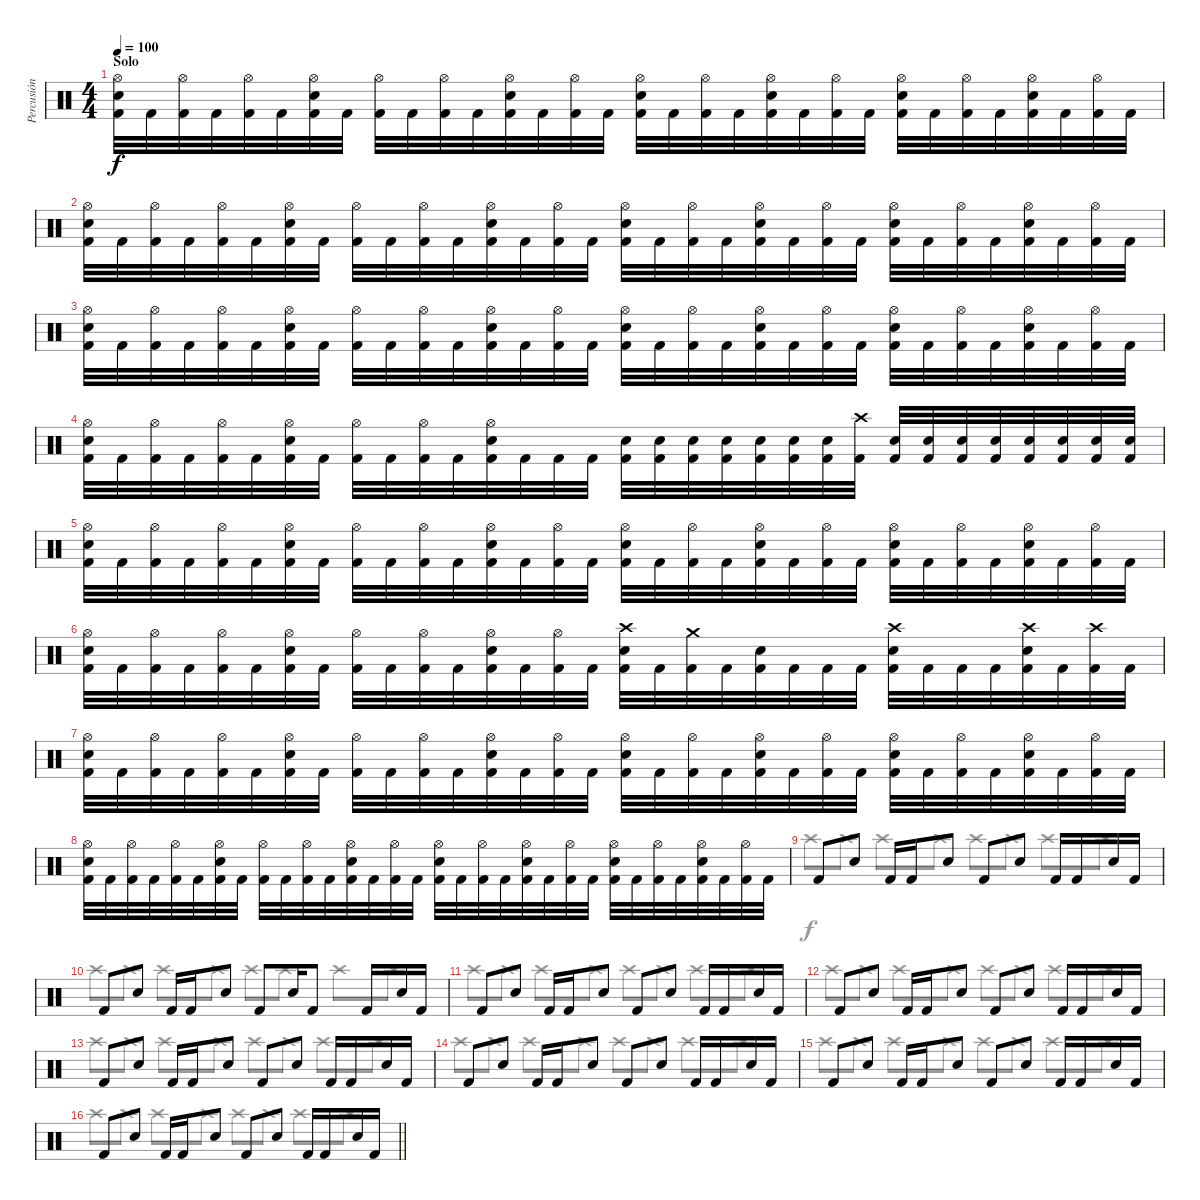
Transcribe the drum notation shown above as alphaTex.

\track ("Percusión" "Percusión") {instrument percussion}
\staff {score}
\articulation defaults
\voice
\ts (4 4)
\section ("" "Solo")
\tempo 100
\clef neutral
\ks c
("Kick (hit) 2" "Snare (hit) 2" "Hi-Hat (open)").32{dy f} "Kick (hit) 2".32 ("Kick (hit) 2" "Hi-Hat (open)").32 "Kick (hit) 2".32 ("Kick (hit) 2" "Hi-Hat (open)").32 "Kick (hit) 2".32 ("Kick (hit) 2" "Snare (hit) 2" "Hi-Hat (open)").32 "Kick (hit) 2".32 ("Kick (hit) 2" "Hi-Hat (open)").32 "Kick (hit) 2".32 ("Kick (hit) 2" "Hi-Hat (open)").32 "Kick (hit) 2".32 ("Kick (hit) 2" "Snare (hit) 2" "Hi-Hat (open)").32 "Kick (hit) 2".32 ("Kick (hit) 2" "Hi-Hat (open)").32 "Kick (hit) 2".32 ("Kick (hit) 2" "Snare (hit) 2" "Hi-Hat (open)").32 "Kick (hit) 2".32 ("Kick (hit) 2" "Hi-Hat (open)").32 "Kick (hit) 2".32 ("Kick (hit) 2" "Snare (hit) 2" "Hi-Hat (open)").32 "Kick (hit) 2".32 ("Kick (hit) 2" "Hi-Hat (open)").32 "Kick (hit) 2".32 ("Kick (hit) 2" "Snare (hit) 2" "Hi-Hat (open)").32 "Kick (hit) 2".32 ("Kick (hit) 2" "Hi-Hat (open)").32 "Kick (hit) 2".32 ("Kick (hit) 2" "Snare (hit) 2" "Hi-Hat (open)").32 "Kick (hit) 2".32 ("Kick (hit) 2" "Hi-Hat (open)").32 "Kick (hit) 2".32 |
("Kick (hit) 2" "Snare (hit) 2" "Hi-Hat (open)").32 "Kick (hit) 2".32 ("Kick (hit) 2" "Hi-Hat (open)").32 "Kick (hit) 2".32 ("Kick (hit) 2" "Hi-Hat (open)").32 "Kick (hit) 2".32 ("Kick (hit) 2" "Snare (hit) 2" "Hi-Hat (open)").32 "Kick (hit) 2".32 ("Kick (hit) 2" "Hi-Hat (open)").32 "Kick (hit) 2".32 ("Kick (hit) 2" "Hi-Hat (open)").32 "Kick (hit) 2".32 ("Kick (hit) 2" "Snare (hit) 2" "Hi-Hat (open)").32 "Kick (hit) 2".32 ("Kick (hit) 2" "Hi-Hat (open)").32 "Kick (hit) 2".32 ("Kick (hit) 2" "Snare (hit) 2" "Hi-Hat (open)").32 "Kick (hit) 2".32 ("Kick (hit) 2" "Hi-Hat (open)").32 "Kick (hit) 2".32 ("Kick (hit) 2" "Snare (hit) 2" "Hi-Hat (open)").32 "Kick (hit) 2".32 ("Kick (hit) 2" "Hi-Hat (open)").32 "Kick (hit) 2".32 ("Kick (hit) 2" "Snare (hit) 2" "Hi-Hat (open)").32 "Kick (hit) 2".32 ("Kick (hit) 2" "Hi-Hat (open)").32 "Kick (hit) 2".32 ("Kick (hit) 2" "Snare (hit) 2" "Hi-Hat (open)").32 "Kick (hit) 2".32 ("Kick (hit) 2" "Hi-Hat (open)").32 "Kick (hit) 2".32 |
("Kick (hit) 2" "Snare (hit) 2" "Hi-Hat (open)").32 "Kick (hit) 2".32 ("Kick (hit) 2" "Hi-Hat (open)").32 "Kick (hit) 2".32 ("Kick (hit) 2" "Hi-Hat (open)").32 "Kick (hit) 2".32 ("Kick (hit) 2" "Snare (hit) 2" "Hi-Hat (open)").32 "Kick (hit) 2".32 ("Kick (hit) 2" "Hi-Hat (open)").32 "Kick (hit) 2".32 ("Kick (hit) 2" "Hi-Hat (open)").32 "Kick (hit) 2".32 ("Kick (hit) 2" "Snare (hit) 2" "Hi-Hat (open)").32 "Kick (hit) 2".32 ("Kick (hit) 2" "Hi-Hat (open)").32 "Kick (hit) 2".32 ("Kick (hit) 2" "Snare (hit) 2" "Hi-Hat (open)").32 "Kick (hit) 2".32 ("Kick (hit) 2" "Hi-Hat (open)").32 "Kick (hit) 2".32 ("Kick (hit) 2" "Snare (hit) 2" "Hi-Hat (open)").32 "Kick (hit) 2".32 ("Kick (hit) 2" "Hi-Hat (open)").32 "Kick (hit) 2".32 ("Kick (hit) 2" "Snare (hit) 2" "Hi-Hat (open)").32 "Kick (hit) 2".32 ("Kick (hit) 2" "Hi-Hat (open)").32 "Kick (hit) 2".32 ("Kick (hit) 2" "Snare (hit) 2" "Hi-Hat (open)").32 "Kick (hit) 2".32 ("Kick (hit) 2" "Hi-Hat (open)").32 "Kick (hit) 2".32 |
("Kick (hit) 2" "Snare (hit) 2" "Hi-Hat (open)").32 "Kick (hit) 2".32 ("Kick (hit) 2" "Hi-Hat (open)").32 "Kick (hit) 2".32 ("Kick (hit) 2" "Hi-Hat (open)").32 "Kick (hit) 2".32 ("Kick (hit) 2" "Snare (hit) 2" "Hi-Hat (open)").32 "Kick (hit) 2".32 ("Kick (hit) 2" "Hi-Hat (open)").32 "Kick (hit) 2".32 ("Kick (hit) 2" "Hi-Hat (open)").32 "Kick (hit) 2".32 ("Kick (hit) 2" "Snare (hit) 2" "Hi-Hat (open)").32 "Kick (hit) 2".32 "Kick (hit) 2".32 "Kick (hit) 2".32 ("Kick (hit) 2" "Snare (hit) 2").32 ("Kick (hit) 2" "Snare (hit) 2").32 ("Kick (hit) 2" "Snare (hit) 2").32 ("Kick (hit) 2" "Snare (hit) 2").32 ("Kick (hit) 2" "Snare (hit) 2").32 ("Kick (hit) 2" "Snare (hit) 2").32 ("Kick (hit) 2" "Snare (hit) 2").32 ("Kick (hit) 2" "Crash high (hit)").32 ("Kick (hit) 2" "Snare (hit) 2").32 ("Kick (hit) 2" "Snare (hit) 2").32 ("Kick (hit) 2" "Snare (hit) 2").32 ("Kick (hit) 2" "Snare (hit) 2").32 ("Kick (hit) 2" "Snare (hit) 2").32 ("Kick (hit) 2" "Snare (hit) 2").32 ("Kick (hit) 2" "Snare (hit) 2").32 ("Kick (hit) 2" "Snare (hit) 2").32 |
("Kick (hit) 2" "Snare (hit) 2" "Hi-Hat (open)").32 "Kick (hit) 2".32 ("Kick (hit) 2" "Hi-Hat (open)").32 "Kick (hit) 2".32 ("Kick (hit) 2" "Hi-Hat (open)").32 "Kick (hit) 2".32 ("Kick (hit) 2" "Snare (hit) 2" "Hi-Hat (open)").32 "Kick (hit) 2".32 ("Kick (hit) 2" "Hi-Hat (open)").32 "Kick (hit) 2".32 ("Kick (hit) 2" "Hi-Hat (open)").32 "Kick (hit) 2".32 ("Kick (hit) 2" "Snare (hit) 2" "Hi-Hat (open)").32 "Kick (hit) 2".32 ("Kick (hit) 2" "Hi-Hat (open)").32 "Kick (hit) 2".32 ("Kick (hit) 2" "Snare (hit) 2" "Hi-Hat (open)").32 "Kick (hit) 2".32 ("Kick (hit) 2" "Hi-Hat (open)").32 "Kick (hit) 2".32 ("Kick (hit) 2" "Snare (hit) 2" "Hi-Hat (open)").32 "Kick (hit) 2".32 ("Kick (hit) 2" "Hi-Hat (open)").32 "Kick (hit) 2".32 ("Kick (hit) 2" "Snare (hit) 2" "Hi-Hat (open)").32 "Kick (hit) 2".32 ("Kick (hit) 2" "Hi-Hat (open)").32 "Kick (hit) 2".32 ("Kick (hit) 2" "Snare (hit) 2" "Hi-Hat (open)").32 "Kick (hit) 2".32 ("Kick (hit) 2" "Hi-Hat (open)").32 "Kick (hit) 2".32 |
("Kick (hit) 2" "Snare (hit) 2" "Hi-Hat (open)").32 "Kick (hit) 2".32 ("Kick (hit) 2" "Hi-Hat (open)").32 "Kick (hit) 2".32 ("Kick (hit) 2" "Hi-Hat (open)").32 "Kick (hit) 2".32 ("Kick (hit) 2" "Snare (hit) 2" "Hi-Hat (open)").32 "Kick (hit) 2".32 ("Kick (hit) 2" "Hi-Hat (open)").32 "Kick (hit) 2".32 ("Kick (hit) 2" "Hi-Hat (open)").32 "Kick (hit) 2".32 ("Kick (hit) 2" "Snare (hit) 2" "Hi-Hat (open)").32 "Kick (hit) 2".32 ("Kick (hit) 2" "Hi-Hat (open)").32 "Kick (hit) 2".32 ("Kick (hit) 2" "Snare (hit) 2" "Crash high (hit)").32 "Kick (hit) 2".32 ("Kick (hit) 2" "Crash medium (hit)").32 "Kick (hit) 2".32 ("Kick (hit) 2" "Snare (hit) 2").32 "Kick (hit) 2".32 "Kick (hit) 2".32 "Kick (hit) 2".32 ("Kick (hit) 2" "Snare (hit) 2" "Crash high (hit)").32 "Kick (hit) 2".32 "Kick (hit) 2".32 "Kick (hit) 2".32 ("Kick (hit) 2" "Snare (hit) 2" "Crash high (hit)").32 "Kick (hit) 2".32 ("Kick (hit) 2" "Crash high (hit)").32 "Kick (hit) 2".32 |
("Kick (hit) 2" "Snare (hit) 2" "Hi-Hat (open)").32 "Kick (hit) 2".32 ("Kick (hit) 2" "Hi-Hat (open)").32 "Kick (hit) 2".32 ("Kick (hit) 2" "Hi-Hat (open)").32 "Kick (hit) 2".32 ("Kick (hit) 2" "Snare (hit) 2" "Hi-Hat (open)").32 "Kick (hit) 2".32 ("Kick (hit) 2" "Hi-Hat (open)").32 "Kick (hit) 2".32 ("Kick (hit) 2" "Hi-Hat (open)").32 "Kick (hit) 2".32 ("Kick (hit) 2" "Snare (hit) 2" "Hi-Hat (open)").32 "Kick (hit) 2".32 ("Kick (hit) 2" "Hi-Hat (open)").32 "Kick (hit) 2".32 ("Kick (hit) 2" "Snare (hit) 2" "Hi-Hat (open)").32 "Kick (hit) 2".32 ("Kick (hit) 2" "Hi-Hat (open)").32 "Kick (hit) 2".32 ("Kick (hit) 2" "Snare (hit) 2" "Hi-Hat (open)").32 "Kick (hit) 2".32 ("Kick (hit) 2" "Hi-Hat (open)").32 "Kick (hit) 2".32 ("Kick (hit) 2" "Snare (hit) 2" "Hi-Hat (open)").32 "Kick (hit) 2".32 ("Kick (hit) 2" "Hi-Hat (open)").32 "Kick (hit) 2".32 ("Kick (hit) 2" "Snare (hit) 2" "Hi-Hat (open)").32 "Kick (hit) 2".32 ("Kick (hit) 2" "Hi-Hat (open)").32 "Kick (hit) 2".32 |
("Kick (hit) 2" "Snare (hit) 2" "Hi-Hat (open)").32 "Kick (hit) 2".32 ("Kick (hit) 2" "Hi-Hat (open)").32 "Kick (hit) 2".32 ("Kick (hit) 2" "Hi-Hat (open)").32 "Kick (hit) 2".32 ("Kick (hit) 2" "Snare (hit) 2" "Hi-Hat (open)").32 "Kick (hit) 2".32 ("Kick (hit) 2" "Hi-Hat (open)").32 "Kick (hit) 2".32 ("Kick (hit) 2" "Hi-Hat (open)").32 "Kick (hit) 2".32 ("Kick (hit) 2" "Snare (hit) 2" "Hi-Hat (open)").32 "Kick (hit) 2".32 ("Kick (hit) 2" "Hi-Hat (open)").32 "Kick (hit) 2".32 ("Kick (hit) 2" "Snare (hit) 2" "Hi-Hat (open)").32 "Kick (hit) 2".32 ("Kick (hit) 2" "Hi-Hat (open)").32 "Kick (hit) 2".32 ("Kick (hit) 2" "Snare (hit) 2" "Hi-Hat (open)").32 "Kick (hit) 2".32 ("Kick (hit) 2" "Hi-Hat (open)").32 "Kick (hit) 2".32 ("Kick (hit) 2" "Snare (hit) 2" "Hi-Hat (open)").32 "Kick (hit) 2".32 ("Kick (hit) 2" "Hi-Hat (open)").32 "Kick (hit) 2".32 ("Kick (hit) 2" "Snare (hit) 2" "Hi-Hat (open)").32 "Kick (hit) 2".32 ("Kick (hit) 2" "Hi-Hat (open)").32 "Kick (hit) 2".32 |
"Kick (hit) 2".8 "Snare (hit) 2".8 "Kick (hit) 2".16 "Kick (hit) 2".16 "Snare (hit) 2".8 "Kick (hit) 2".8 "Snare (hit) 2".8 "Kick (hit) 2".16 "Kick (hit) 2".16 "Snare (hit) 2".16 "Kick (hit) 2".16 |
"Kick (hit) 2".8 "Snare (hit) 2".8 "Kick (hit) 2".16 "Kick (hit) 2".16 "Snare (hit) 2".8 "Kick (hit) 2".8 "Snare (hit) 2".16 "Kick (hit) 2".8 "Kick (hit) 2".16 "Snare (hit) 2".16 "Kick (hit) 2".16 |
"Kick (hit) 2".8 "Snare (hit) 2".8 "Kick (hit) 2".16 "Kick (hit) 2".16 "Snare (hit) 2".8 "Kick (hit) 2".8 "Snare (hit) 2".8 "Kick (hit) 2".16 "Kick (hit) 2".16 "Snare (hit) 2".16 "Kick (hit) 2".16 |
"Kick (hit) 2".8 "Snare (hit) 2".8 "Kick (hit) 2".16 "Kick (hit) 2".16 "Snare (hit) 2".8 "Kick (hit) 2".8 "Snare (hit) 2".8 "Kick (hit) 2".16 "Kick (hit) 2".16 "Snare (hit) 2".16 "Kick (hit) 2".16 |
"Kick (hit) 2".8 "Snare (hit) 2".8 "Kick (hit) 2".16 "Kick (hit) 2".16 "Snare (hit) 2".8 "Kick (hit) 2".8 "Snare (hit) 2".8 "Kick (hit) 2".16 "Kick (hit) 2".16 "Snare (hit) 2".16 "Kick (hit) 2".16 |
"Kick (hit) 2".8 "Snare (hit) 2".8 "Kick (hit) 2".16 "Kick (hit) 2".16 "Snare (hit) 2".8 "Kick (hit) 2".8 "Snare (hit) 2".8 "Kick (hit) 2".16 "Kick (hit) 2".16 "Snare (hit) 2".16 "Kick (hit) 2".16 |
"Kick (hit) 2".8 "Snare (hit) 2".8 "Kick (hit) 2".16 "Kick (hit) 2".16 "Snare (hit) 2".8 "Kick (hit) 2".8 "Snare (hit) 2".8 "Kick (hit) 2".16 "Kick (hit) 2".16 "Snare (hit) 2".16 "Kick (hit) 2".16 |
\barLineRight lightlight "Kick (hit) 2".8 "Snare (hit) 2".8 "Kick (hit) 2".16 "Kick (hit) 2".16 "Snare (hit) 2".8 "Kick (hit) 2".8 "Snare (hit) 2".8 "Kick (hit) 2".16 "Kick (hit) 2".16 "Snare (hit) 2".16 "Kick (hit) 2".16
\voice
\clef neutral
\ottava regular
\simile none
\ks c
|
|
|
|
|
|
|
|
"Crash high (hit)".8 "Crash high (hit)".8 "Crash high (hit)".8 "Crash high (hit)".8 "Crash high (hit)".8 "Crash high (hit)".8 "Crash high (hit)".8 "Crash high (hit)".8 |
"Crash high (hit)".8 "Crash high (hit)".8 "Crash high (hit)".8 "Crash high (hit)".8 "Crash high (hit)".8 "Crash high (hit)".8 "Crash high (hit)".8 "Crash high (hit)".8 |
"Crash high (hit)".8 "Crash high (hit)".8 "Crash high (hit)".8 "Crash high (hit)".8 "Crash high (hit)".8 "Crash high (hit)".8 "Crash high (hit)".8 "Crash high (hit)".8 |
"Crash high (hit)".8 "Crash high (hit)".8 "Crash high (hit)".8 "Crash high (hit)".8 "Crash high (hit)".8 "Crash high (hit)".8 "Crash high (hit)".8 "Crash high (hit)".8 |
"Crash high (hit)".8 "Crash high (hit)".8 "Crash high (hit)".8 "Crash high (hit)".8 "Crash high (hit)".8 "Crash high (hit)".8 "Crash high (hit)".8 "Crash high (hit)".8 |
"Crash high (hit)".8 "Crash high (hit)".8 "Crash high (hit)".8 "Crash high (hit)".8 "Crash high (hit)".8 "Crash high (hit)".8 "Crash high (hit)".8 "Crash high (hit)".8 |
"Crash high (hit)".8 "Crash high (hit)".8 "Crash high (hit)".8 "Crash high (hit)".8 "Crash high (hit)".8 "Crash high (hit)".8 "Crash high (hit)".8 "Crash high (hit)".8 |
\barLineRight lightlight "Crash high (hit)".8 "Crash high (hit)".8 "Crash high (hit)".8 "Crash high (hit)".8 "Crash high (hit)".8 "Crash high (hit)".8 "Crash high (hit)".8 "Crash high (hit)".8
